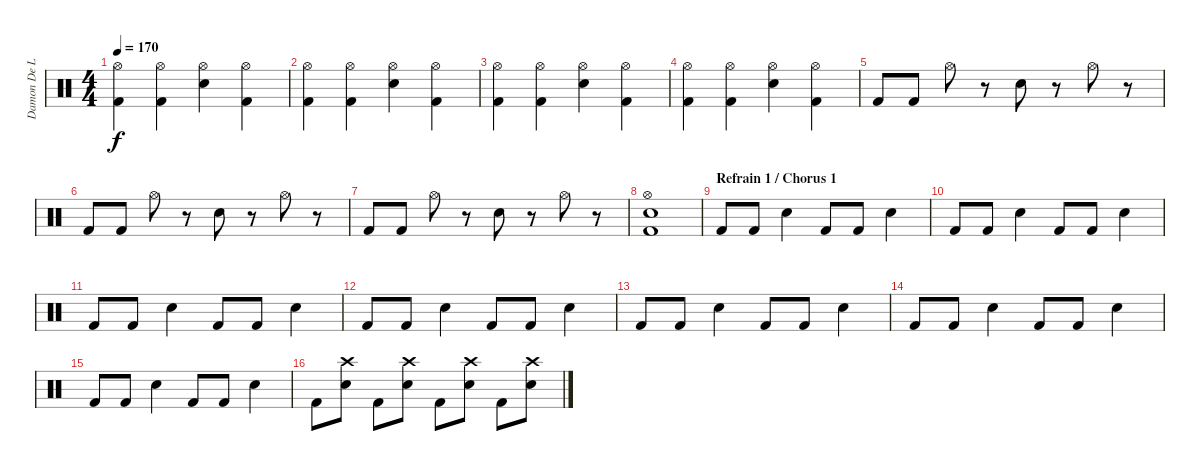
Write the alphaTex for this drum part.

\track ("Damon De La Paz" "Damon De L") {instrument percussion}
\staff {score}
\articulation defaults
\ts (4 4)
\tempo 170
\clef neutral
\ks c
("Hi-Hat (open)" "Kick (hit) 2").4{dy f} ("Hi-Hat (open)" "Kick (hit) 2").4 ("Hi-Hat (open)" "Electric Snare (hit)").4 ("Hi-Hat (open)" "Kick (hit) 2").4 |
("Hi-Hat (open)" "Kick (hit) 2").4 ("Hi-Hat (open)" "Kick (hit) 2").4 ("Hi-Hat (open)" "Electric Snare (hit)").4 ("Hi-Hat (open)" "Kick (hit) 2").4 |
("Hi-Hat (open)" "Kick (hit) 2").4 ("Hi-Hat (open)" "Kick (hit) 2").4 ("Hi-Hat (open)" "Electric Snare (hit)").4 ("Hi-Hat (open)" "Kick (hit) 2").4 |
("Hi-Hat (open)" "Kick (hit) 2").4 ("Hi-Hat (open)" "Kick (hit) 2").4 ("Hi-Hat (open)" "Electric Snare (hit)").4 ("Hi-Hat (open)" "Kick (hit) 2").4 |
"Kick (hit) 2".8 "Kick (hit) 2".8 "Hi-Hat (open)".8 r.8 "Electric Snare (hit)".8 r.8 "Hi-Hat (open)".8 r.8 |
"Kick (hit) 2".8 "Kick (hit) 2".8 "Hi-Hat (open)".8 r.8 "Electric Snare (hit)".8 r.8 "Hi-Hat (open)".8 r.8 |
"Kick (hit) 2".8 "Kick (hit) 2".8 "Hi-Hat (open)".8 r.8 "Electric Snare (hit)".8 r.8 "Hi-Hat (open)".8 r.8 |
("Hi-Hat (open)" "Electric Snare (hit)" "Kick (hit) 2").1 |
\section ("" "Refrain 1 / Chorus 1")
"Kick (hit) 2".8 "Kick (hit) 2".8 "Electric Snare (hit)".4 "Kick (hit) 2".8 "Kick (hit) 2".8 "Electric Snare (hit)".4 |
"Kick (hit) 2".8 "Kick (hit) 2".8 "Electric Snare (hit)".4 "Kick (hit) 2".8 "Kick (hit) 2".8 "Electric Snare (hit)".4 |
"Kick (hit) 2".8 "Kick (hit) 2".8 "Electric Snare (hit)".4 "Kick (hit) 2".8 "Kick (hit) 2".8 "Electric Snare (hit)".4 |
"Kick (hit) 2".8 "Kick (hit) 2".8 "Electric Snare (hit)".4 "Kick (hit) 2".8 "Kick (hit) 2".8 "Electric Snare (hit)".4 |
"Kick (hit) 2".8 "Kick (hit) 2".8 "Electric Snare (hit)".4 "Kick (hit) 2".8 "Kick (hit) 2".8 "Electric Snare (hit)".4 |
"Kick (hit) 2".8 "Kick (hit) 2".8 "Electric Snare (hit)".4 "Kick (hit) 2".8 "Kick (hit) 2".8 "Electric Snare (hit)".4 |
"Kick (hit) 2".8 "Kick (hit) 2".8 "Electric Snare (hit)".4 "Kick (hit) 2".8 "Kick (hit) 2".8 "Electric Snare (hit)".4 |
"Kick (hit) 2".8 ("Crash high (hit)" "Electric Snare (hit)").8 "Kick (hit) 2".8 ("Crash high (hit)" "Electric Snare (hit)").8 "Kick (hit) 2".8 ("Crash high (hit)" "Electric Snare (hit)").8 "Kick (hit) 2".8 ("Crash high (hit)" "Electric Snare (hit)").8
